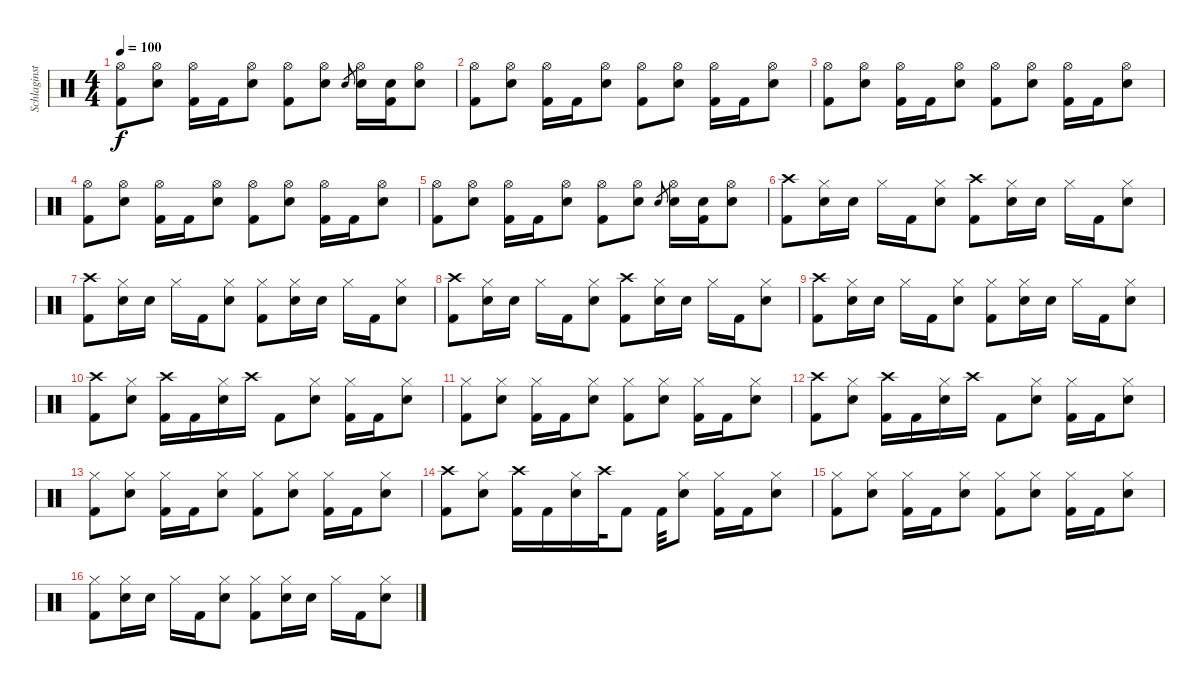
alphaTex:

\track ("Schlaginstrumente - Auswahl" "Schlaginst") {instrument percussion}
\staff {score}
\articulation defaults
\ts (4 4)
\tempo 100
\clef neutral
\ks c
("Hi-Hat (open)" "Kick (hit) 2").8{dy f} ("Hi-Hat (open)" "Snare (hit) 2").8 ("Hi-Hat (open)" "Kick (hit) 2").16 "Kick (hit) 2".16 ("Hi-Hat (open)" "Snare (hit) 2").8 ("Hi-Hat (open)" "Kick (hit) 2").8 ("Hi-Hat (open)" "Snare (hit) 2").8 "Snare (hit) 2".8{gr} ("Hi-Hat (open)" "Snare (hit) 2").16 ("Snare (hit) 2" "Kick (hit) 2").16 ("Hi-Hat (open)" "Snare (hit) 2").8 |
("Hi-Hat (open)" "Kick (hit) 2").8 ("Hi-Hat (open)" "Snare (hit) 2").8 ("Hi-Hat (open)" "Kick (hit) 2").16 "Kick (hit) 2".16 ("Hi-Hat (open)" "Snare (hit) 2").8 ("Hi-Hat (open)" "Kick (hit) 2").8 ("Hi-Hat (open)" "Snare (hit) 2").8 ("Hi-Hat (open)" "Kick (hit) 2").16 "Kick (hit) 2".16 ("Hi-Hat (open)" "Snare (hit) 2").8 |
("Hi-Hat (open)" "Kick (hit) 2").8 ("Hi-Hat (open)" "Snare (hit) 2").8 ("Hi-Hat (open)" "Kick (hit) 2").16 "Kick (hit) 2".16 ("Hi-Hat (open)" "Snare (hit) 2").8 ("Hi-Hat (open)" "Kick (hit) 2").8 ("Hi-Hat (open)" "Snare (hit) 2").8 ("Hi-Hat (open)" "Kick (hit) 2").16 "Kick (hit) 2".16 ("Hi-Hat (open)" "Snare (hit) 2").8 |
("Hi-Hat (open)" "Kick (hit) 2").8 ("Hi-Hat (open)" "Snare (hit) 2").8 ("Hi-Hat (open)" "Kick (hit) 2").16 "Kick (hit) 2".16 ("Hi-Hat (open)" "Snare (hit) 2").8 ("Hi-Hat (open)" "Kick (hit) 2").8 ("Hi-Hat (open)" "Snare (hit) 2").8 ("Hi-Hat (open)" "Kick (hit) 2").16 "Kick (hit) 2".16 ("Hi-Hat (open)" "Snare (hit) 2").8 |
("Hi-Hat (open)" "Kick (hit) 2").8 ("Hi-Hat (open)" "Snare (hit) 2").8 ("Hi-Hat (open)" "Kick (hit) 2").16 "Kick (hit) 2".16 ("Hi-Hat (open)" "Snare (hit) 2").8 ("Hi-Hat (open)" "Kick (hit) 2").8 ("Hi-Hat (open)" "Snare (hit) 2").8 "Snare (hit) 2".8{gr} ("Hi-Hat (open)" "Snare (hit) 2").16 ("Snare (hit) 2" "Kick (hit) 2").16 ("Hi-Hat (open)" "Snare (hit) 2").8 |
("Crash high (hit)" "Kick (hit) 2").8 ("Hi-Hat (closed)" "Snare (hit) 2").16 "Snare (hit) 2".16 "Hi-Hat (closed)".16 "Kick (hit) 2".16 ("Hi-Hat (closed)" "Snare (hit) 2").8 ("Crash high (hit)" "Kick (hit) 2").8 ("Hi-Hat (closed)" "Snare (hit) 2").16 "Snare (hit) 2".16 "Hi-Hat (closed)".16 "Kick (hit) 2".16 ("Hi-Hat (closed)" "Snare (hit) 2").8 |
("Crash high (hit)" "Kick (hit) 2").8 ("Hi-Hat (closed)" "Snare (hit) 2").16 "Snare (hit) 2".16 "Hi-Hat (closed)".16 "Kick (hit) 2".16 ("Hi-Hat (closed)" "Snare (hit) 2").8 ("Hi-Hat (closed)" "Kick (hit) 2").8 ("Hi-Hat (closed)" "Snare (hit) 2").16 "Snare (hit) 2".16 "Hi-Hat (closed)".16 "Kick (hit) 2".16 ("Hi-Hat (closed)" "Snare (hit) 2").8 |
("Crash high (hit)" "Kick (hit) 2").8 ("Hi-Hat (closed)" "Snare (hit) 2").16 "Snare (hit) 2".16 "Hi-Hat (closed)".16 "Kick (hit) 2".16 ("Hi-Hat (closed)" "Snare (hit) 2").8 ("Crash high (hit)" "Kick (hit) 2").8 ("Hi-Hat (closed)" "Snare (hit) 2").16 "Snare (hit) 2".16 "Hi-Hat (closed)".16 "Kick (hit) 2".16 ("Hi-Hat (closed)" "Snare (hit) 2").8 |
("Crash high (hit)" "Kick (hit) 2").8 ("Hi-Hat (closed)" "Snare (hit) 2").16 "Snare (hit) 2".16 "Hi-Hat (closed)".16 "Kick (hit) 2".16 ("Hi-Hat (closed)" "Snare (hit) 2").8 ("Hi-Hat (closed)" "Kick (hit) 2").8 ("Hi-Hat (closed)" "Snare (hit) 2").16 "Snare (hit) 2".16 "Hi-Hat (closed)".16 "Kick (hit) 2".16 ("Hi-Hat (closed)" "Snare (hit) 2").8 |
("Crash high (hit)" "Kick (hit) 2").8 ("Hi-Hat (closed)" "Snare (hit) 2").8 ("Crash high (hit)" "Kick (hit) 2").16 "Kick (hit) 2".16 ("Hi-Hat (closed)" "Snare (hit) 2").16 "Crash high (hit)".16 "Kick (hit) 2".8 ("Hi-Hat (closed)" "Snare (hit) 2").8 ("Hi-Hat (closed)" "Kick (hit) 2").16 "Kick (hit) 2".16 ("Hi-Hat (closed)" "Snare (hit) 2").8 |
("Hi-Hat (closed)" "Kick (hit) 2").8 ("Hi-Hat (closed)" "Snare (hit) 2").8 ("Hi-Hat (closed)" "Kick (hit) 2").16 "Kick (hit) 2".16 ("Hi-Hat (closed)" "Snare (hit) 2").8 ("Hi-Hat (closed)" "Kick (hit) 2").8 ("Hi-Hat (closed)" "Snare (hit) 2").8 ("Hi-Hat (closed)" "Kick (hit) 2").16 "Kick (hit) 2".16 ("Hi-Hat (closed)" "Snare (hit) 2").8 |
("Crash high (hit)" "Kick (hit) 2").8 ("Hi-Hat (closed)" "Snare (hit) 2").8 ("Crash high (hit)" "Kick (hit) 2").16 "Kick (hit) 2".16 ("Hi-Hat (closed)" "Snare (hit) 2").16 "Crash high (hit)".16 "Kick (hit) 2".8 ("Hi-Hat (closed)" "Snare (hit) 2").8 ("Hi-Hat (closed)" "Kick (hit) 2").16 "Kick (hit) 2".16 ("Hi-Hat (closed)" "Snare (hit) 2").8 |
("Hi-Hat (closed)" "Kick (hit) 2").8 ("Hi-Hat (closed)" "Snare (hit) 2").8 ("Hi-Hat (closed)" "Kick (hit) 2").16 "Kick (hit) 2".16 ("Hi-Hat (closed)" "Snare (hit) 2").8 ("Hi-Hat (closed)" "Kick (hit) 2").8 ("Hi-Hat (closed)" "Snare (hit) 2").8 ("Hi-Hat (closed)" "Kick (hit) 2").16 "Kick (hit) 2".16 ("Hi-Hat (closed)" "Snare (hit) 2").8 |
("Crash high (hit)" "Kick (hit) 2").8 ("Hi-Hat (closed)" "Snare (hit) 2").8 ("Crash high (hit)" "Kick (hit) 2").16 "Kick (hit) 2".16 ("Hi-Hat (closed)" "Snare (hit) 2").16 "Crash high (hit)".32 "Kick (hit) 2".8 "Kick (hit) 2".32 ("Hi-Hat (closed)" "Snare (hit) 2").8 ("Hi-Hat (closed)" "Kick (hit) 2").16 "Kick (hit) 2".16 ("Hi-Hat (closed)" "Snare (hit) 2").8 |
("Hi-Hat (closed)" "Kick (hit) 2").8 ("Hi-Hat (closed)" "Snare (hit) 2").8 ("Hi-Hat (closed)" "Kick (hit) 2").16 "Kick (hit) 2".16 ("Hi-Hat (closed)" "Snare (hit) 2").8 ("Hi-Hat (closed)" "Kick (hit) 2").8 ("Hi-Hat (closed)" "Snare (hit) 2").8 ("Hi-Hat (closed)" "Kick (hit) 2").16 "Kick (hit) 2".16 ("Hi-Hat (closed)" "Snare (hit) 2").8 |
("Hi-Hat (closed)" "Kick (hit) 2").8 ("Hi-Hat (closed)" "Snare (hit) 2").16 "Snare (hit) 2".16 "Hi-Hat (closed)".16 "Kick (hit) 2".16 ("Hi-Hat (closed)" "Snare (hit) 2").8 ("Hi-Hat (closed)" "Kick (hit) 2").8 ("Hi-Hat (closed)" "Snare (hit) 2").16 "Snare (hit) 2".16 "Hi-Hat (closed)".16 "Kick (hit) 2".16 ("Hi-Hat (closed)" "Snare (hit) 2").8
